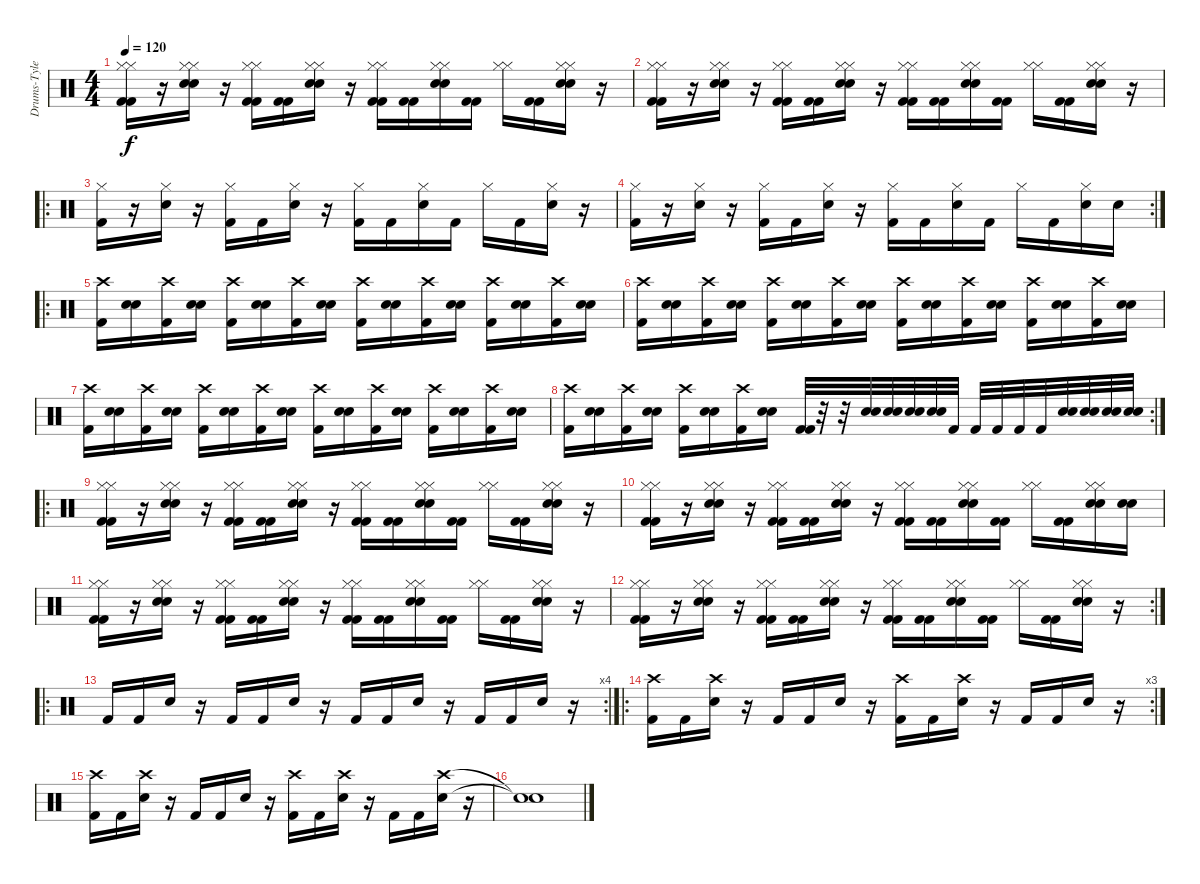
\track ("Drums-Tyler" "Drums-Tyle") {instrument percussion}
\staff {score}
\articulation defaults
\ts (4 4)
\tempo 120
\clef neutral
\ks c
("Hi-Hat (closed)" "Kick (hit) 2" "Hi-Hat (closed)" "Kick (hit) 2").16{dy f} r.16 ("Hi-Hat (closed)" "Snare (hit) 2" "Hi-Hat (closed)" "Snare (hit) 2").16 r.16 ("Hi-Hat (closed)" "Kick (hit) 2" "Hi-Hat (closed)" "Kick (hit) 2").16 ("Kick (hit) 2" "Kick (hit) 2").16 ("Hi-Hat (closed)" "Snare (hit) 2" "Hi-Hat (closed)" "Snare (hit) 2").16 r.16 ("Hi-Hat (closed)" "Kick (hit) 2" "Hi-Hat (closed)" "Kick (hit) 2").16 ("Kick (hit) 2" "Kick (hit) 2").16 ("Hi-Hat (closed)" "Snare (hit) 2" "Hi-Hat (closed)" "Snare (hit) 2").16 ("Kick (hit) 2" "Kick (hit) 2").16 ("Hi-Hat (closed)" "Hi-Hat (closed)").16 ("Kick (hit) 2" "Kick (hit) 2").16 ("Hi-Hat (closed)" "Snare (hit) 2" "Hi-Hat (closed)" "Snare (hit) 2").16 r.16 |
("Hi-Hat (closed)" "Kick (hit) 2" "Hi-Hat (closed)" "Kick (hit) 2").16 r.16 ("Hi-Hat (closed)" "Snare (hit) 2" "Hi-Hat (closed)" "Snare (hit) 2").16 r.16 ("Hi-Hat (closed)" "Kick (hit) 2" "Hi-Hat (closed)" "Kick (hit) 2").16 ("Kick (hit) 2" "Kick (hit) 2").16 ("Hi-Hat (closed)" "Snare (hit) 2" "Hi-Hat (closed)" "Snare (hit) 2").16 r.16 ("Hi-Hat (closed)" "Kick (hit) 2" "Hi-Hat (closed)" "Kick (hit) 2").16 ("Kick (hit) 2" "Kick (hit) 2").16 ("Hi-Hat (closed)" "Snare (hit) 2" "Hi-Hat (closed)" "Snare (hit) 2").16 ("Kick (hit) 2" "Kick (hit) 2").16 ("Hi-Hat (closed)" "Hi-Hat (closed)").16 ("Kick (hit) 2" "Kick (hit) 2").16 ("Hi-Hat (closed)" "Snare (hit) 2" "Hi-Hat (closed)" "Snare (hit) 2").16 r.16 |
\ro
("Hi-Hat (closed)" "Kick (hit) 2").16 r.16 ("Hi-Hat (closed)" "Snare (hit) 2").16 r.16 ("Hi-Hat (closed)" "Kick (hit) 2").16 "Kick (hit) 2".16 ("Hi-Hat (closed)" "Snare (hit) 2").16 r.16 ("Hi-Hat (closed)" "Kick (hit) 2").16 "Kick (hit) 2".16 ("Hi-Hat (closed)" "Snare (hit) 2").16 "Kick (hit) 2".16 "Hi-Hat (closed)".16 "Kick (hit) 2".16 ("Hi-Hat (closed)" "Snare (hit) 2").16 r.16 |
\rc 2
("Hi-Hat (closed)" "Kick (hit) 2").16 r.16 ("Hi-Hat (closed)" "Snare (hit) 2").16 r.16 ("Hi-Hat (closed)" "Kick (hit) 2").16 "Kick (hit) 2".16 ("Hi-Hat (closed)" "Snare (hit) 2").16 r.16 ("Hi-Hat (closed)" "Kick (hit) 2").16 "Kick (hit) 2".16 ("Hi-Hat (closed)" "Snare (hit) 2").16 "Kick (hit) 2".16 "Hi-Hat (closed)".16 "Kick (hit) 2".16 ("Hi-Hat (closed)" "Snare (hit) 2").16 "Snare (hit) 2".16 |
\ro
("Crash high (hit)" "Kick (hit) 2").16 ("Snare (hit) 2" "Snare (hit) 2").16 ("Crash high (hit)" "Kick (hit) 2").16 ("Snare (hit) 2" "Snare (hit) 2").16 ("Crash high (hit)" "Kick (hit) 2").16 ("Snare (hit) 2" "Snare (hit) 2").16 ("Crash high (hit)" "Kick (hit) 2").16 ("Snare (hit) 2" "Snare (hit) 2").16 ("Crash high (hit)" "Kick (hit) 2").16 ("Snare (hit) 2" "Snare (hit) 2").16 ("Crash high (hit)" "Kick (hit) 2").16 ("Snare (hit) 2" "Snare (hit) 2").16 ("Crash high (hit)" "Kick (hit) 2").16 ("Snare (hit) 2" "Snare (hit) 2").16 ("Crash high (hit)" "Kick (hit) 2").16 ("Snare (hit) 2" "Snare (hit) 2").16 |
("Crash high (hit)" "Kick (hit) 2").16 ("Snare (hit) 2" "Snare (hit) 2").16 ("Crash high (hit)" "Kick (hit) 2").16 ("Snare (hit) 2" "Snare (hit) 2").16 ("Crash high (hit)" "Kick (hit) 2").16 ("Snare (hit) 2" "Snare (hit) 2").16 ("Crash high (hit)" "Kick (hit) 2").16 ("Snare (hit) 2" "Snare (hit) 2").16 ("Crash high (hit)" "Kick (hit) 2").16 ("Snare (hit) 2" "Snare (hit) 2").16 ("Crash high (hit)" "Kick (hit) 2").16 ("Snare (hit) 2" "Snare (hit) 2").16 ("Crash high (hit)" "Kick (hit) 2").16 ("Snare (hit) 2" "Snare (hit) 2").16 ("Crash high (hit)" "Kick (hit) 2").16 ("Snare (hit) 2" "Snare (hit) 2").16 |
("Crash high (hit)" "Kick (hit) 2").16 ("Snare (hit) 2" "Snare (hit) 2").16 ("Crash high (hit)" "Kick (hit) 2").16 ("Snare (hit) 2" "Snare (hit) 2").16 ("Crash high (hit)" "Kick (hit) 2").16 ("Snare (hit) 2" "Snare (hit) 2").16 ("Crash high (hit)" "Kick (hit) 2").16 ("Snare (hit) 2" "Snare (hit) 2").16 ("Crash high (hit)" "Kick (hit) 2").16 ("Snare (hit) 2" "Snare (hit) 2").16 ("Crash high (hit)" "Kick (hit) 2").16 ("Snare (hit) 2" "Snare (hit) 2").16 ("Crash high (hit)" "Kick (hit) 2").16 ("Snare (hit) 2" "Snare (hit) 2").16 ("Crash high (hit)" "Kick (hit) 2").16 ("Snare (hit) 2" "Snare (hit) 2").16 |
\rc 2
("Crash high (hit)" "Kick (hit) 2").16 ("Snare (hit) 2" "Snare (hit) 2").16 ("Crash high (hit)" "Kick (hit) 2").16 ("Snare (hit) 2" "Snare (hit) 2").16 ("Crash high (hit)" "Kick (hit) 2").16 ("Snare (hit) 2" "Snare (hit) 2").16 ("Crash high (hit)" "Kick (hit) 2").16 ("Snare (hit) 2" "Snare (hit) 2").16 ("Kick (hit) 2" "Kick (hit) 2").32 r.32 r.32 ("Snare (hit) 2" "Snare (hit) 2").32 ("Snare (hit) 2" "Snare (hit) 2").32 ("Snare (hit) 2" "Snare (hit) 2").32 ("Snare (hit) 2" "Snare (hit) 2").32 "Kick (hit) 2".32 "Kick (hit) 2".32 "Kick (hit) 2".32 "Kick (hit) 2".32 "Kick (hit) 2".32 ("Snare (hit) 2" "Snare (hit) 2").32 ("Snare (hit) 2" "Snare (hit) 2").32 ("Snare (hit) 2" "Snare (hit) 2").32 ("Snare (hit) 2" "Snare (hit) 2").32 |
\ro
("Hi-Hat (closed)" "Kick (hit) 2" "Hi-Hat (closed)" "Kick (hit) 2").16 r.16 ("Hi-Hat (closed)" "Snare (hit) 2" "Hi-Hat (closed)" "Snare (hit) 2").16 r.16 ("Hi-Hat (closed)" "Kick (hit) 2" "Hi-Hat (closed)" "Kick (hit) 2").16 ("Kick (hit) 2" "Kick (hit) 2").16 ("Hi-Hat (closed)" "Snare (hit) 2" "Hi-Hat (closed)" "Snare (hit) 2").16 r.16 ("Hi-Hat (closed)" "Kick (hit) 2" "Hi-Hat (closed)" "Kick (hit) 2").16 ("Kick (hit) 2" "Kick (hit) 2").16 ("Hi-Hat (closed)" "Snare (hit) 2" "Hi-Hat (closed)" "Snare (hit) 2").16 ("Kick (hit) 2" "Kick (hit) 2").16 ("Hi-Hat (closed)" "Hi-Hat (closed)").16 ("Kick (hit) 2" "Kick (hit) 2").16 ("Hi-Hat (closed)" "Snare (hit) 2" "Hi-Hat (closed)" "Snare (hit) 2").16 r.16 |
("Hi-Hat (closed)" "Kick (hit) 2" "Hi-Hat (closed)" "Kick (hit) 2").16 r.16 ("Hi-Hat (closed)" "Snare (hit) 2" "Hi-Hat (closed)" "Snare (hit) 2").16 r.16 ("Hi-Hat (closed)" "Kick (hit) 2" "Hi-Hat (closed)" "Kick (hit) 2").16 ("Kick (hit) 2" "Kick (hit) 2").16 ("Hi-Hat (closed)" "Snare (hit) 2" "Hi-Hat (closed)" "Snare (hit) 2").16 r.16 ("Hi-Hat (closed)" "Kick (hit) 2" "Hi-Hat (closed)" "Kick (hit) 2").16 ("Kick (hit) 2" "Kick (hit) 2").16 ("Hi-Hat (closed)" "Snare (hit) 2" "Hi-Hat (closed)" "Snare (hit) 2").16 ("Kick (hit) 2" "Kick (hit) 2").16 ("Hi-Hat (closed)" "Hi-Hat (closed)").16 ("Kick (hit) 2" "Kick (hit) 2").16 ("Hi-Hat (closed)" "Snare (hit) 2" "Hi-Hat (closed)" "Snare (hit) 2").16 ("Snare (hit) 2" "Snare (hit) 2").16 |
("Hi-Hat (closed)" "Kick (hit) 2" "Hi-Hat (closed)" "Kick (hit) 2").16 r.16 ("Hi-Hat (closed)" "Snare (hit) 2" "Hi-Hat (closed)" "Snare (hit) 2").16 r.16 ("Hi-Hat (closed)" "Kick (hit) 2" "Hi-Hat (closed)" "Kick (hit) 2").16 ("Kick (hit) 2" "Kick (hit) 2").16 ("Hi-Hat (closed)" "Snare (hit) 2" "Hi-Hat (closed)" "Snare (hit) 2").16 r.16 ("Hi-Hat (closed)" "Kick (hit) 2" "Hi-Hat (closed)" "Kick (hit) 2").16 ("Kick (hit) 2" "Kick (hit) 2").16 ("Hi-Hat (closed)" "Snare (hit) 2" "Hi-Hat (closed)" "Snare (hit) 2").16 ("Kick (hit) 2" "Kick (hit) 2").16 ("Hi-Hat (closed)" "Hi-Hat (closed)").16 ("Kick (hit) 2" "Kick (hit) 2").16 ("Hi-Hat (closed)" "Snare (hit) 2" "Hi-Hat (closed)" "Snare (hit) 2").16 r.16 |
\rc 2
("Hi-Hat (closed)" "Kick (hit) 2" "Hi-Hat (closed)" "Kick (hit) 2").16 r.16 ("Hi-Hat (closed)" "Snare (hit) 2" "Hi-Hat (closed)" "Snare (hit) 2").16 r.16 ("Hi-Hat (closed)" "Kick (hit) 2" "Hi-Hat (closed)" "Kick (hit) 2").16 ("Kick (hit) 2" "Kick (hit) 2").16 ("Hi-Hat (closed)" "Snare (hit) 2" "Hi-Hat (closed)" "Snare (hit) 2").16 r.16 ("Hi-Hat (closed)" "Kick (hit) 2" "Hi-Hat (closed)" "Kick (hit) 2").16 ("Kick (hit) 2" "Kick (hit) 2").16 ("Hi-Hat (closed)" "Snare (hit) 2" "Hi-Hat (closed)" "Snare (hit) 2").16 ("Kick (hit) 2" "Kick (hit) 2").16 ("Hi-Hat (closed)" "Hi-Hat (closed)").16 ("Kick (hit) 2" "Kick (hit) 2").16 ("Hi-Hat (closed)" "Snare (hit) 2" "Hi-Hat (closed)" "Snare (hit) 2").16 r.16 |
\ro
\rc 4 "Kick (hit) 2".16 "Kick (hit) 2".16 "Snare (hit) 2".16
r.16 "Kick (hit) 2".16 "Kick (hit) 2".16 "Snare (hit) 2".16 r.16 "Kick (hit) 2".16 "Kick (hit) 2".16 "Snare (hit) 2".16 r.16 "Kick (hit) 2".16 "Kick (hit) 2".16 "Snare (hit) 2".16 r.16 |
\ro
\rc 3
("Kick (hit) 2" "Crash high (hit)").16 "Kick (hit) 2".16 ("Snare (hit) 2" "Crash high (hit)").16 r.16 "Kick (hit) 2".16 "Kick (hit) 2".16 "Snare (hit) 2".16 r.16 ("Kick (hit) 2" "Crash high (hit)").16 "Kick (hit) 2".16 ("Snare (hit) 2" "Crash high (hit)").16 r.16 "Kick (hit) 2".16 "Kick (hit) 2".16 "Snare (hit) 2".16 r.16 |
("Kick (hit) 2" "Crash high (hit)").16 "Kick (hit) 2".16 ("Snare (hit) 2" "Crash high (hit)").16 r.16 "Kick (hit) 2".16 "Kick (hit) 2".16 "Snare (hit) 2".16 r.16 ("Kick (hit) 2" "Crash high (hit)").16 "Kick (hit) 2".16 ("Snare (hit) 2" "Crash high (hit)").16 r.16 "Kick (hit) 2".16 "Kick (hit) 2".16 ("Snare (hit) 2" "Crash high (hit)").16 r.16 |
("Snare (hit)"{t} "Snare (hit)"{t}).1
